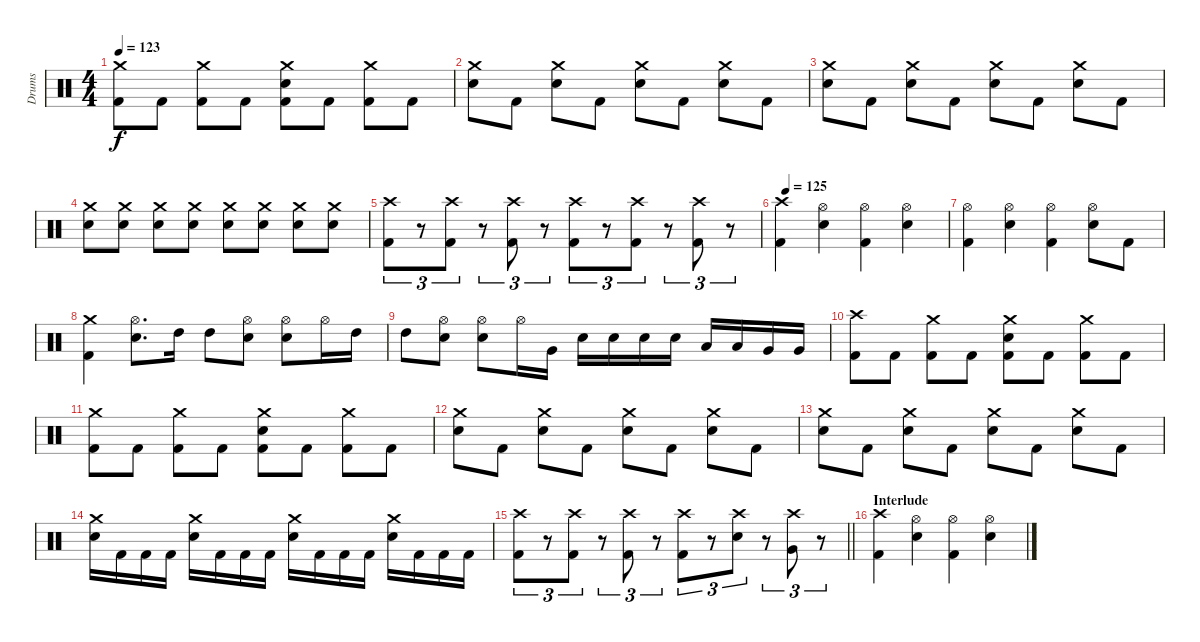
\track ("Drums" "Drums") {instrument percussion}
\staff {score}
\articulation defaults
\ts (4 4)
\tempo 123
\clef neutral
\ks c
("Crash medium (hit)" "Kick (hit) 2").8{dy f} "Kick (hit) 2".8 ("Crash medium (hit)" "Kick (hit) 2").8 "Kick (hit) 2".8 ("Crash medium (hit)" "Snare (hit) 2" "Kick (hit) 2").8 "Kick (hit) 2".8 ("Crash medium (hit)" "Kick (hit) 2").8 "Kick (hit) 2".8 |
("Crash medium (hit)" "Snare (hit) 2").8 "Kick (hit) 2".8 ("Crash medium (hit)" "Snare (hit) 2").8 "Kick (hit) 2".8 ("Crash medium (hit)" "Snare (hit) 2").8 "Kick (hit) 2".8 ("Crash medium (hit)" "Snare (hit) 2").8 "Kick (hit) 2".8 |
("Crash medium (hit)" "Snare (hit) 2").8 "Kick (hit) 2".8 ("Crash medium (hit)" "Snare (hit) 2").8 "Kick (hit) 2".8 ("Crash medium (hit)" "Snare (hit) 2").8 "Kick (hit) 2".8 ("Crash medium (hit)" "Snare (hit) 2").8 "Kick (hit) 2".8 |
("Crash medium (hit)" "Snare (hit) 2").8 ("Crash medium (hit)" "Snare (hit) 2").8 ("Crash medium (hit)" "Snare (hit) 2").8 ("Crash medium (hit)" "Snare (hit) 2").8 ("Crash medium (hit)" "Snare (hit) 2").8 ("Crash medium (hit)" "Snare (hit) 2").8 ("Crash medium (hit)" "Snare (hit) 2").8 ("Crash medium (hit)" "Snare (hit) 2").8 |
("Crash high (hit)" "Kick (hit) 2").8{tu (3 2)} r.8{tu (3 2)} ("Crash high (hit)" "Kick (hit) 2").8{tu (3 2)} r.8{tu (3 2)} ("Crash high (hit)" "Kick (hit) 2").8{tu (3 2)} r.8{tu (3 2)} ("Crash high (hit)" "Kick (hit) 2").8{tu (3 2)} r.8{tu (3 2)} ("Crash high (hit)" "Kick (hit) 2").8{tu (3 2)} r.8{tu (3 2)} ("Crash high (hit)" "Kick (hit) 2").8{tu (3 2)} r.8{tu (3 2)} |
\tempo (125 0.03125)
("Crash high (hit)" "Kick (hit) 2").4 ("Hi-Hat (open)" "Snare (hit) 2").4 ("Hi-Hat (open)" "Kick (hit) 2").4 ("Hi-Hat (open)" "Snare (hit) 2").4 |
("Hi-Hat (open)" "Kick (hit) 2").4 ("Hi-Hat (open)" "Snare (hit) 2").4 ("Hi-Hat (open)" "Kick (hit) 2").4 ("Hi-Hat (open)" "Snare (hit) 2").8 "Kick (hit) 2".8 |
("Crash medium (hit)" "Kick (hit) 2").4 ("Hi-Hat (open)" "Snare (hit) 2").8{d} "High Tom (hit)".16 "High Tom (hit)".8 ("Hi-Hat (open)" "Snare (hit) 2").8 ("Hi-Hat (open)" "Snare (hit) 2").8 "Hi-Hat (open)".16 "High Tom (hit)".16 |
"High Tom (hit)".8 ("Hi-Hat (open)" "Snare (hit) 2").8 ("Hi-Hat (open)" "Snare (hit) 2").8 "Hi-Hat (open)".16 "Very Low Tom (hit)".16 "Snare (hit) 2".16 "Snare (hit) 2".16 "Snare (hit) 2".16 "Snare (hit) 2".16 "Low Tom (hit)".16 "Low Tom (hit)".16 "Very Low Tom (hit)".16 "Very Low Tom (hit)".16 |
("Crash high (hit)" "Kick (hit) 2").8 "Kick (hit) 2".8 ("Crash medium (hit)" "Kick (hit) 2").8 "Kick (hit) 2".8 ("Crash medium (hit)" "Snare (hit) 2" "Kick (hit) 2").8 "Kick (hit) 2".8 ("Crash medium (hit)" "Kick (hit) 2").8 "Kick (hit) 2".8 |
("Crash medium (hit)" "Kick (hit) 2").8 "Kick (hit) 2".8 ("Crash medium (hit)" "Kick (hit) 2").8 "Kick (hit) 2".8 ("Crash medium (hit)" "Snare (hit) 2" "Kick (hit) 2").8 "Kick (hit) 2".8 ("Crash medium (hit)" "Kick (hit) 2").8 "Kick (hit) 2".8 |
("Crash medium (hit)" "Snare (hit) 2").8 "Kick (hit) 2".8 ("Crash medium (hit)" "Snare (hit) 2").8 "Kick (hit) 2".8 ("Crash medium (hit)" "Snare (hit) 2").8 "Kick (hit) 2".8 ("Crash medium (hit)" "Snare (hit) 2").8 "Kick (hit) 2".8 |
("Crash medium (hit)" "Snare (hit) 2").8 "Kick (hit) 2".8 ("Crash medium (hit)" "Snare (hit) 2").8 "Kick (hit) 2".8 ("Crash medium (hit)" "Snare (hit) 2").8 "Kick (hit) 2".8 ("Crash medium (hit)" "Snare (hit) 2").8 "Kick (hit) 2".8 |
("Crash medium (hit)" "Snare (hit) 2").16 "Kick (hit) 2".16 "Kick (hit) 2".16 "Kick (hit) 2".16 ("Crash medium (hit)" "Snare (hit) 2").16 "Kick (hit) 2".16 "Kick (hit) 2".16 "Kick (hit) 2".16 ("Crash medium (hit)" "Snare (hit) 2").16 "Kick (hit) 2".16 "Kick (hit) 2".16 "Kick (hit) 2".16 ("Crash medium (hit)" "Snare (hit) 2").16 "Kick (hit) 2".16 "Kick (hit) 2".16 "Kick (hit) 2".16 |
\barLineRight lightlight
("Crash high (hit)" "Kick (hit) 2").8{tu (3 2)} r.8{tu (3 2)} ("Crash high (hit)" "Kick (hit) 2").8{tu (3 2)} r.8{tu (3 2)} ("Crash high (hit)" "Kick (hit) 2").8{tu (3 2)} r.8{tu (3 2)} ("Crash high (hit)" "Kick (hit) 2").8{tu (3 2)} r.8{tu (3 2)} ("Crash high (hit)" "Snare (hit) 2").8{tu (3 2)} r.8{tu (3 2)} ("Crash high (hit)" "Very Low Tom (hit)").8{tu (3 2)} r.8{tu (3 2)} |
\section ("" "Interlude")
("Crash high (hit)" "Kick (hit) 2").4 ("Hi-Hat (open)" "Snare (hit) 2").4 ("Hi-Hat (open)" "Kick (hit) 2").4 ("Hi-Hat (open)" "Snare (hit) 2").4
